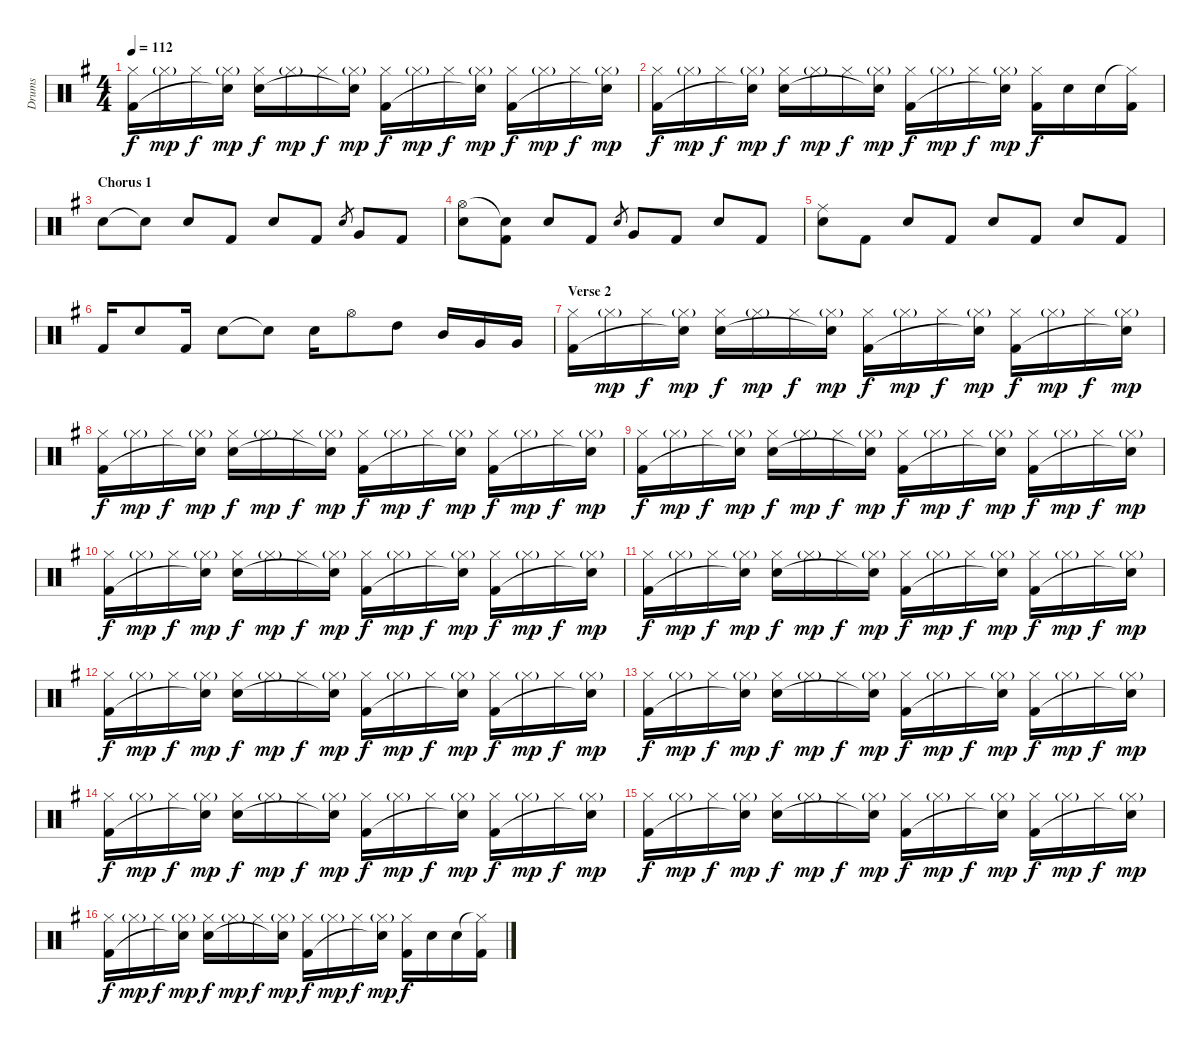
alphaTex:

\track ("Drums" "Drums") {instrument percussion}
\staff {score}
\articulation defaults
\ts (4 4)
\tempo 112
\clef neutral
\ks g
("Hi-Hat (closed)" "Kick (hit) 2").16{dy f} "Hi-Hat (closed)"{g}.16{dy mp} "Hi-Hat (closed)".16{dy f} ("Hi-Hat (closed)"{g} "Snare (hit)"{t}).16{dy mp} ("Hi-Hat (closed)" "Electric Snare (hit)").16{dy f} "Hi-Hat (closed)"{g}.16{dy mp} "Hi-Hat (closed)".16{dy f} ("Hi-Hat (closed)"{g} "Snare (hit)"{t}).16{dy mp} ("Hi-Hat (closed)" "Kick (hit) 2").16{dy f} "Hi-Hat (closed)"{g}.16{dy mp} "Hi-Hat (closed)".16{dy f} ("Hi-Hat (closed)"{g} "Snare (hit)"{t}).16{dy mp} ("Hi-Hat (closed)" "Kick (hit) 2").16{dy f} "Hi-Hat (closed)"{g}.16{dy mp} "Hi-Hat (closed)".16{dy f} ("Hi-Hat (closed)"{g} "Snare (hit)"{t}).16{dy mp} |
("Hi-Hat (closed)" "Kick (hit) 2").16{dy f} "Hi-Hat (closed)"{g}.16{dy mp} "Hi-Hat (closed)".16{dy f} ("Hi-Hat (closed)"{g} "Snare (hit)"{t}).16{dy mp} ("Hi-Hat (closed)" "Electric Snare (hit)").16{dy f} "Hi-Hat (closed)"{g}.16{dy mp} "Hi-Hat (closed)".16{dy f} ("Hi-Hat (closed)"{g} "Snare (hit)"{t}).16{dy mp} ("Hi-Hat (closed)" "Kick (hit) 2").16{dy f} "Hi-Hat (closed)"{g}.16{dy mp} "Hi-Hat (closed)".16{dy f} ("Hi-Hat (closed)"{g} "Snare (hit)"{t}).16{dy mp} ("Hi-Hat (closed)" "Kick (hit) 2").16{dy f} "Electric Snare (hit)".16 "Electric Snare (hit)".16 ("Hi-Hat (closed)"{t} "Kick (hit) 2").16 |
\section ("" "Chorus 1")
"Electric Snare (hit)".8 "Snare (hit)"{t}.8 "Electric Snare (hit)".8 "Kick (hit) 2".8 "Electric Snare (hit)".8 "Kick (hit) 2".8 "Electric Snare (hit)".8{gr} "Very Low Tom (hit)".8 "Kick (hit) 2".8 |
("Hi-Hat (open)" "Electric Snare (hit)").8 ("Snare (hit)"{t} "Kick (hit) 2").8 "Electric Snare (hit)".8 "Kick (hit) 2".8 "Electric Snare (hit)".8{gr} "Very Low Tom (hit)".8 "Kick (hit) 2".8 "Electric Snare (hit)".8 "Kick (hit) 2".8 |
("Ride (middle)" "Electric Snare (hit)").8 "Kick (hit) 2".8 "Electric Snare (hit)".8 "Kick (hit) 2".8 "Electric Snare (hit)".8 "Kick (hit) 2".8 "Electric Snare (hit)".8 "Kick (hit) 2".8 |
"Kick (hit) 2".16 "Electric Snare (hit)".8 "Kick (hit) 2".16 "Electric Snare (hit)".8 "Electric Snare (hit)"{t}.8 "Electric Snare (hit)".16 "Hi-Hat (open)".8 "High Tom (hit)".8 "Mid Tom (hit)".16 "Very Low Tom (hit)".16 "Very Low Tom (hit)".16 |
\section ("" "Verse 2")
("Hi-Hat (closed)" "Kick (hit) 2").16 "Hi-Hat (closed)"{g}.16{dy mp} "Hi-Hat (closed)".16{dy f} ("Hi-Hat (closed)"{g} "Snare (hit)"{t}).16{dy mp} ("Hi-Hat (closed)" "Electric Snare (hit)").16{dy f} "Hi-Hat (closed)"{g}.16{dy mp} "Hi-Hat (closed)".16{dy f} ("Hi-Hat (closed)"{g} "Snare (hit)"{t}).16{dy mp} ("Hi-Hat (closed)" "Kick (hit) 2").16{dy f} "Hi-Hat (closed)"{g}.16{dy mp} "Hi-Hat (closed)".16{dy f} ("Hi-Hat (closed)"{g} "Snare (hit)"{t}).16{dy mp} ("Hi-Hat (closed)" "Kick (hit) 2").16{dy f} "Hi-Hat (closed)"{g}.16{dy mp} "Hi-Hat (closed)".16{dy f} ("Hi-Hat (closed)"{g} "Snare (hit)"{t}).16{dy mp} |
("Hi-Hat (closed)" "Kick (hit) 2").16{dy f} "Hi-Hat (closed)"{g}.16{dy mp} "Hi-Hat (closed)".16{dy f} ("Hi-Hat (closed)"{g} "Snare (hit)"{t}).16{dy mp} ("Hi-Hat (closed)" "Electric Snare (hit)").16{dy f} "Hi-Hat (closed)"{g}.16{dy mp} "Hi-Hat (closed)".16{dy f} ("Hi-Hat (closed)"{g} "Snare (hit)"{t}).16{dy mp} ("Hi-Hat (closed)" "Kick (hit) 2").16{dy f} "Hi-Hat (closed)"{g}.16{dy mp} "Hi-Hat (closed)".16{dy f} ("Hi-Hat (closed)"{g} "Snare (hit)"{t}).16{dy mp} ("Hi-Hat (closed)" "Kick (hit) 2").16{dy f} "Hi-Hat (closed)"{g}.16{dy mp} "Hi-Hat (closed)".16{dy f} ("Hi-Hat (closed)"{g} "Snare (hit)"{t}).16{dy mp} |
("Hi-Hat (closed)" "Kick (hit) 2").16{dy f} "Hi-Hat (closed)"{g}.16{dy mp} "Hi-Hat (closed)".16{dy f} ("Hi-Hat (closed)"{g} "Snare (hit)"{t}).16{dy mp} ("Hi-Hat (closed)" "Electric Snare (hit)").16{dy f} "Hi-Hat (closed)"{g}.16{dy mp} "Hi-Hat (closed)".16{dy f} ("Hi-Hat (closed)"{g} "Snare (hit)"{t}).16{dy mp} ("Hi-Hat (closed)" "Kick (hit) 2").16{dy f} "Hi-Hat (closed)"{g}.16{dy mp} "Hi-Hat (closed)".16{dy f} ("Hi-Hat (closed)"{g} "Snare (hit)"{t}).16{dy mp} ("Hi-Hat (closed)" "Kick (hit) 2").16{dy f} "Hi-Hat (closed)"{g}.16{dy mp} "Hi-Hat (closed)".16{dy f} ("Hi-Hat (closed)"{g} "Snare (hit)"{t}).16{dy mp} |
("Hi-Hat (closed)" "Kick (hit) 2").16{dy f} "Hi-Hat (closed)"{g}.16{dy mp} "Hi-Hat (closed)".16{dy f} ("Hi-Hat (closed)"{g} "Snare (hit)"{t}).16{dy mp} ("Hi-Hat (closed)" "Electric Snare (hit)").16{dy f} "Hi-Hat (closed)"{g}.16{dy mp} "Hi-Hat (closed)".16{dy f} ("Hi-Hat (closed)"{g} "Snare (hit)"{t}).16{dy mp} ("Hi-Hat (closed)" "Kick (hit) 2").16{dy f} "Hi-Hat (closed)"{g}.16{dy mp} "Hi-Hat (closed)".16{dy f} ("Hi-Hat (closed)"{g} "Snare (hit)"{t}).16{dy mp} ("Hi-Hat (closed)" "Kick (hit) 2").16{dy f} "Hi-Hat (closed)"{g}.16{dy mp} "Hi-Hat (closed)".16{dy f} ("Hi-Hat (closed)"{g} "Snare (hit)"{t}).16{dy mp} |
("Hi-Hat (closed)" "Kick (hit) 2").16{dy f} "Hi-Hat (closed)"{g}.16{dy mp} "Hi-Hat (closed)".16{dy f} ("Hi-Hat (closed)"{g} "Snare (hit)"{t}).16{dy mp} ("Hi-Hat (closed)" "Electric Snare (hit)").16{dy f} "Hi-Hat (closed)"{g}.16{dy mp} "Hi-Hat (closed)".16{dy f} ("Hi-Hat (closed)"{g} "Snare (hit)"{t}).16{dy mp} ("Hi-Hat (closed)" "Kick (hit) 2").16{dy f} "Hi-Hat (closed)"{g}.16{dy mp} "Hi-Hat (closed)".16{dy f} ("Hi-Hat (closed)"{g} "Snare (hit)"{t}).16{dy mp} ("Hi-Hat (closed)" "Kick (hit) 2").16{dy f} "Hi-Hat (closed)"{g}.16{dy mp} "Hi-Hat (closed)".16{dy f} ("Hi-Hat (closed)"{g} "Snare (hit)"{t}).16{dy mp} |
("Hi-Hat (closed)" "Kick (hit) 2").16{dy f} "Hi-Hat (closed)"{g}.16{dy mp} "Hi-Hat (closed)".16{dy f} ("Hi-Hat (closed)"{g} "Snare (hit)"{t}).16{dy mp} ("Hi-Hat (closed)" "Electric Snare (hit)").16{dy f} "Hi-Hat (closed)"{g}.16{dy mp} "Hi-Hat (closed)".16{dy f} ("Hi-Hat (closed)"{g} "Snare (hit)"{t}).16{dy mp} ("Hi-Hat (closed)" "Kick (hit) 2").16{dy f} "Hi-Hat (closed)"{g}.16{dy mp} "Hi-Hat (closed)".16{dy f} ("Hi-Hat (closed)"{g} "Snare (hit)"{t}).16{dy mp} ("Hi-Hat (closed)" "Kick (hit) 2").16{dy f} "Hi-Hat (closed)"{g}.16{dy mp} "Hi-Hat (closed)".16{dy f} ("Hi-Hat (closed)"{g} "Snare (hit)"{t}).16{dy mp} |
("Hi-Hat (closed)" "Kick (hit) 2").16{dy f} "Hi-Hat (closed)"{g}.16{dy mp} "Hi-Hat (closed)".16{dy f} ("Hi-Hat (closed)"{g} "Snare (hit)"{t}).16{dy mp} ("Hi-Hat (closed)" "Electric Snare (hit)").16{dy f} "Hi-Hat (closed)"{g}.16{dy mp} "Hi-Hat (closed)".16{dy f} ("Hi-Hat (closed)"{g} "Snare (hit)"{t}).16{dy mp} ("Hi-Hat (closed)" "Kick (hit) 2").16{dy f} "Hi-Hat (closed)"{g}.16{dy mp} "Hi-Hat (closed)".16{dy f} ("Hi-Hat (closed)"{g} "Snare (hit)"{t}).16{dy mp} ("Hi-Hat (closed)" "Kick (hit) 2").16{dy f} "Hi-Hat (closed)"{g}.16{dy mp} "Hi-Hat (closed)".16{dy f} ("Hi-Hat (closed)"{g} "Snare (hit)"{t}).16{dy mp} |
("Hi-Hat (closed)" "Kick (hit) 2").16{dy f} "Hi-Hat (closed)"{g}.16{dy mp} "Hi-Hat (closed)".16{dy f} ("Hi-Hat (closed)"{g} "Snare (hit)"{t}).16{dy mp} ("Hi-Hat (closed)" "Electric Snare (hit)").16{dy f} "Hi-Hat (closed)"{g}.16{dy mp} "Hi-Hat (closed)".16{dy f} ("Hi-Hat (closed)"{g} "Snare (hit)"{t}).16{dy mp} ("Hi-Hat (closed)" "Kick (hit) 2").16{dy f} "Hi-Hat (closed)"{g}.16{dy mp} "Hi-Hat (closed)".16{dy f} ("Hi-Hat (closed)"{g} "Snare (hit)"{t}).16{dy mp} ("Hi-Hat (closed)" "Kick (hit) 2").16{dy f} "Hi-Hat (closed)"{g}.16{dy mp} "Hi-Hat (closed)".16{dy f} ("Hi-Hat (closed)"{g} "Snare (hit)"{t}).16{dy mp} |
("Hi-Hat (closed)" "Kick (hit) 2").16{dy f} "Hi-Hat (closed)"{g}.16{dy mp} "Hi-Hat (closed)".16{dy f} ("Hi-Hat (closed)"{g} "Snare (hit)"{t}).16{dy mp} ("Hi-Hat (closed)" "Electric Snare (hit)").16{dy f} "Hi-Hat (closed)"{g}.16{dy mp} "Hi-Hat (closed)".16{dy f} ("Hi-Hat (closed)"{g} "Snare (hit)"{t}).16{dy mp} ("Hi-Hat (closed)" "Kick (hit) 2").16{dy f} "Hi-Hat (closed)"{g}.16{dy mp} "Hi-Hat (closed)".16{dy f} ("Hi-Hat (closed)"{g} "Snare (hit)"{t}).16{dy mp} ("Hi-Hat (closed)" "Kick (hit) 2").16{dy f} "Hi-Hat (closed)"{g}.16{dy mp} "Hi-Hat (closed)".16{dy f} ("Hi-Hat (closed)"{g} "Snare (hit)"{t}).16{dy mp} |
("Hi-Hat (closed)" "Kick (hit) 2").16{dy f} "Hi-Hat (closed)"{g}.16{dy mp} "Hi-Hat (closed)".16{dy f} ("Hi-Hat (closed)"{g} "Snare (hit)"{t}).16{dy mp} ("Hi-Hat (closed)" "Electric Snare (hit)").16{dy f} "Hi-Hat (closed)"{g}.16{dy mp} "Hi-Hat (closed)".16{dy f} ("Hi-Hat (closed)"{g} "Snare (hit)"{t}).16{dy mp} ("Hi-Hat (closed)" "Kick (hit) 2").16{dy f} "Hi-Hat (closed)"{g}.16{dy mp} "Hi-Hat (closed)".16{dy f} ("Hi-Hat (closed)"{g} "Snare (hit)"{t}).16{dy mp} ("Hi-Hat (closed)" "Kick (hit) 2").16{dy f} "Electric Snare (hit)".16 "Electric Snare (hit)".16 ("Hi-Hat (closed)"{t} "Kick (hit) 2").16
